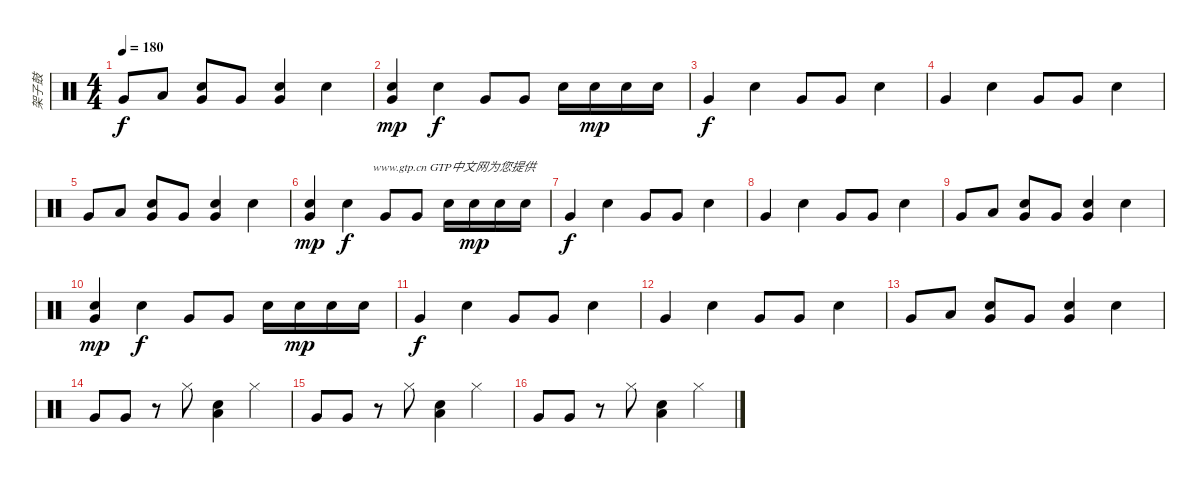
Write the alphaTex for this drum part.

\track ("架子鼓" "架子鼓") {instrument percussion}
\staff {score}
\articulation defaults
\ts (4 4)
\tempo 180
\clef neutral
\ks c "Very Low Tom (hit)".8{dy f} "Low Tom (hit)".8
("Electric Snare (hit)" "Very Low Tom (hit)").8 "Very Low Tom (hit)".8 ("Electric Snare (hit)" "Very Low Tom (hit)").4 "Electric Snare (hit)".4 |
("Electric Snare (hit)" "Very Low Tom (hit)").4{dy mp} "Electric Snare (hit)".4{dy f} "Very Low Tom (hit)".8 "Very Low Tom (hit)".8 "Electric Snare (hit)".16 "Electric Snare (hit)".16{dy mp} "Electric Snare (hit)".16 "Electric Snare (hit)".16 |
"Very Low Tom (hit)".4{dy f} "Electric Snare (hit)".4 "Very Low Tom (hit)".8 "Very Low Tom (hit)".8 "Electric Snare (hit)".4 |
"Very Low Tom (hit)".4 "Electric Snare (hit)".4 "Very Low Tom (hit)".8 "Very Low Tom (hit)".8 "Electric Snare (hit)".4 |
"Very Low Tom (hit)".8 "Low Tom (hit)".8 ("Electric Snare (hit)" "Very Low Tom (hit)").8 "Very Low Tom (hit)".8 ("Electric Snare (hit)" "Very Low Tom (hit)").4 "Electric Snare (hit)".4 |
("Electric Snare (hit)" "Very Low Tom (hit)").4{txt "                     www.gtp.cn GTP中文网为您提供" dy mp} "Electric Snare (hit)".4{dy f} "Very Low Tom (hit)".8 "Very Low Tom (hit)".8 "Electric Snare (hit)".16 "Electric Snare (hit)".16{dy mp} "Electric Snare (hit)".16 "Electric Snare (hit)".16 |
"Very Low Tom (hit)".4{dy f} "Electric Snare (hit)".4 "Very Low Tom (hit)".8 "Very Low Tom (hit)".8 "Electric Snare (hit)".4 |
"Very Low Tom (hit)".4 "Electric Snare (hit)".4 "Very Low Tom (hit)".8 "Very Low Tom (hit)".8 "Electric Snare (hit)".4 |
"Very Low Tom (hit)".8 "Low Tom (hit)".8 ("Electric Snare (hit)" "Very Low Tom (hit)").8 "Very Low Tom (hit)".8 ("Electric Snare (hit)" "Very Low Tom (hit)").4 "Electric Snare (hit)".4 |
("Electric Snare (hit)" "Very Low Tom (hit)").4{dy mp} "Electric Snare (hit)".4{dy f} "Very Low Tom (hit)".8 "Very Low Tom (hit)".8 "Electric Snare (hit)".16 "Electric Snare (hit)".16{dy mp} "Electric Snare (hit)".16 "Electric Snare (hit)".16 |
"Very Low Tom (hit)".4{dy f} "Electric Snare (hit)".4 "Very Low Tom (hit)".8 "Very Low Tom (hit)".8 "Electric Snare (hit)".4 |
"Very Low Tom (hit)".4 "Electric Snare (hit)".4 "Very Low Tom (hit)".8 "Very Low Tom (hit)".8 "Electric Snare (hit)".4 |
"Very Low Tom (hit)".8 "Low Tom (hit)".8 ("Electric Snare (hit)" "Very Low Tom (hit)").8 "Very Low Tom (hit)".8 ("Electric Snare (hit)" "Very Low Tom (hit)").4 "Electric Snare (hit)".4 |
"Very Low Tom (hit)".8 "Very Low Tom (hit)".8 r.8 "Hi-Hat (closed)".8 ("Electric Snare (hit)" "Low Tom (hit)").4 "Hi-Hat (closed)".4 |
"Very Low Tom (hit)".8 "Very Low Tom (hit)".8 r.8 "Hi-Hat (closed)".8 ("Electric Snare (hit)" "Low Tom (hit)").4 "Hi-Hat (closed)".4 |
"Very Low Tom (hit)".8 "Very Low Tom (hit)".8 r.8 "Hi-Hat (closed)".8 ("Electric Snare (hit)" "Low Tom (hit)").4 "Hi-Hat (closed)".4
